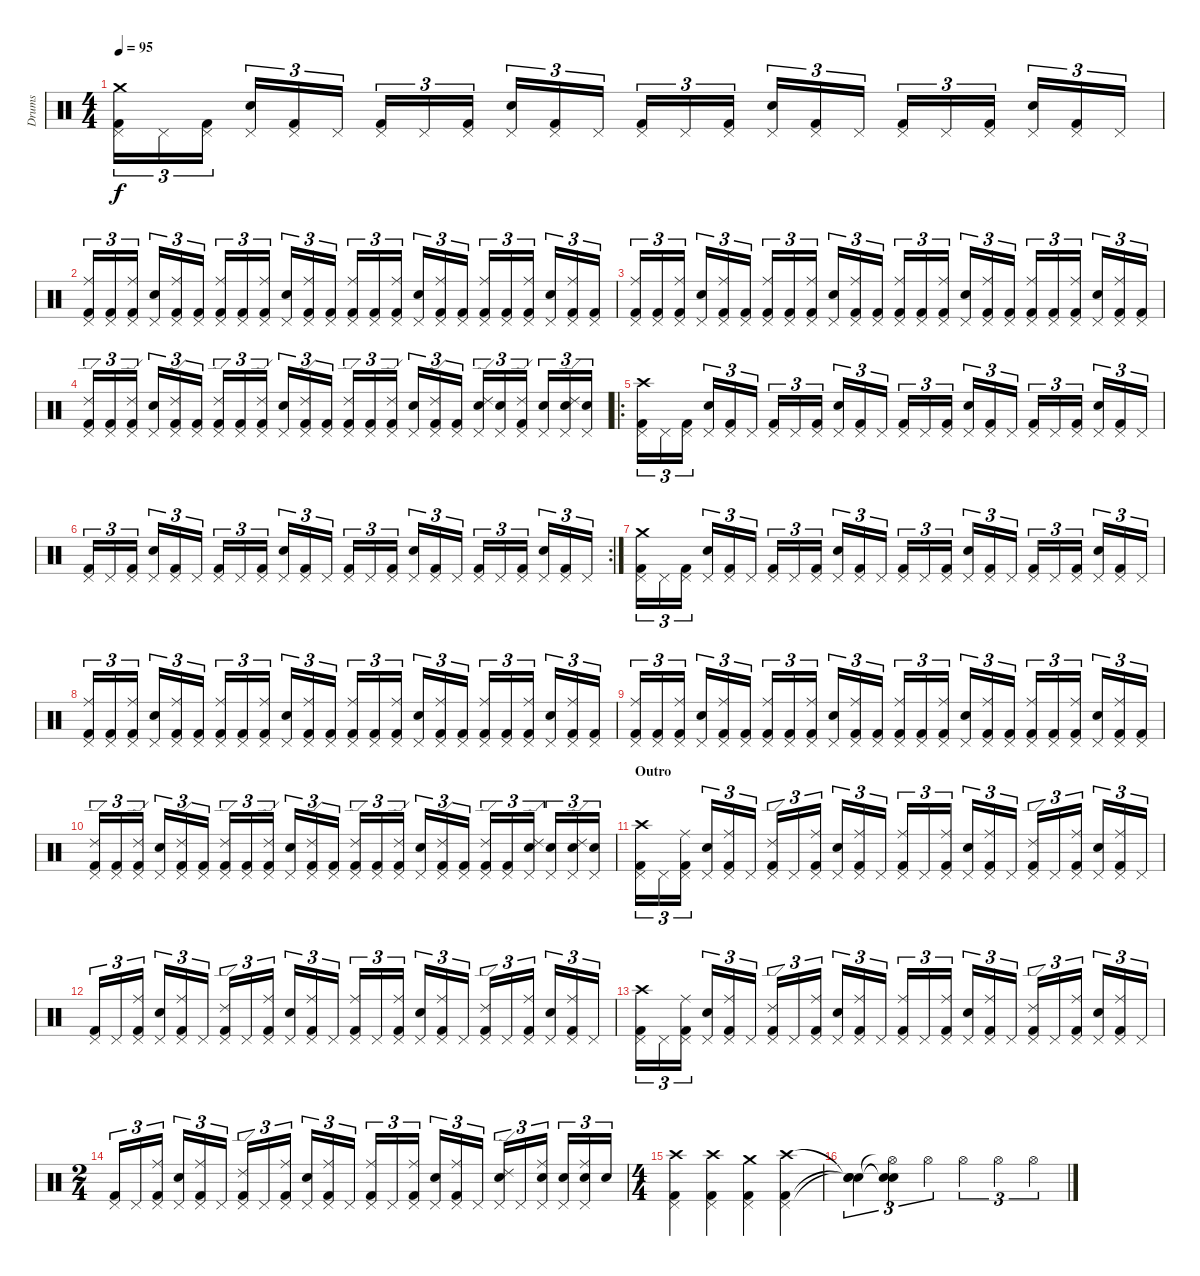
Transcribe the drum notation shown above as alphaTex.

\track ("Drums" "Drums") {instrument percussion}
\staff {score}
\articulation defaults
\ts (4 4)
\tempo 95
\clef neutral
\ks c
("Kick (hit) 2" "Pedal Hi-Hat (hit)" "Crash medium (hit)").16{tu (3 2) dy f} "Pedal Hi-Hat (hit)".16{tu (3 2)} ("Kick (hit) 2" "Pedal Hi-Hat (hit)").16{tu (3 2)} ("Snare (hit) 2" "Pedal Hi-Hat (hit)").16{tu (3 2)} ("Kick (hit) 2" "Pedal Hi-Hat (hit)").16{tu (3 2)} "Pedal Hi-Hat (hit)".16{tu (3 2)} ("Kick (hit) 2" "Pedal Hi-Hat (hit)").16{tu (3 2)} "Pedal Hi-Hat (hit)".16{tu (3 2)} ("Kick (hit) 2" "Pedal Hi-Hat (hit)").16{tu (3 2)} ("Snare (hit) 2" "Pedal Hi-Hat (hit)").16{tu (3 2)} ("Kick (hit) 2" "Pedal Hi-Hat (hit)").16{tu (3 2)} "Pedal Hi-Hat (hit)".16{tu (3 2)} ("Kick (hit) 2" "Pedal Hi-Hat (hit)").16{tu (3 2)} "Pedal Hi-Hat (hit)".16{tu (3 2)} ("Kick (hit) 2" "Pedal Hi-Hat (hit)").16{tu (3 2)} ("Snare (hit) 2" "Pedal Hi-Hat (hit)").16{tu (3 2)} ("Kick (hit) 2" "Pedal Hi-Hat (hit)").16{tu (3 2)} "Pedal Hi-Hat (hit)".16{tu (3 2)} ("Kick (hit) 2" "Pedal Hi-Hat (hit)").16{tu (3 2)} "Pedal Hi-Hat (hit)".16{tu (3 2)} ("Kick (hit) 2" "Pedal Hi-Hat (hit)").16{tu (3 2)} ("Snare (hit) 2" "Pedal Hi-Hat (hit)").16{tu (3 2)} ("Kick (hit) 2" "Pedal Hi-Hat (hit)").16{tu (3 2)} "Pedal Hi-Hat (hit)".16{tu (3 2)} |
("Kick (hit) 2" "Pedal Hi-Hat (hit)" "Ride (middle)").16{tu (3 2)} ("Kick (hit) 2" "Pedal Hi-Hat (hit)").16{tu (3 2)} ("Kick (hit) 2" "Pedal Hi-Hat (hit)" "Ride (middle)").16{tu (3 2)} ("Snare (hit) 2" "Pedal Hi-Hat (hit)").16{tu (3 2)} ("Kick (hit) 2" "Pedal Hi-Hat (hit)" "Ride (middle)").16{tu (3 2)} ("Kick (hit) 2" "Pedal Hi-Hat (hit)").16{tu (3 2)} ("Kick (hit) 2" "Pedal Hi-Hat (hit)" "Ride (middle)").16{tu (3 2)} ("Kick (hit) 2" "Pedal Hi-Hat (hit)").16{tu (3 2)} ("Kick (hit) 2" "Pedal Hi-Hat (hit)" "Ride (middle)").16{tu (3 2)} ("Snare (hit) 2" "Pedal Hi-Hat (hit)").16{tu (3 2)} ("Kick (hit) 2" "Pedal Hi-Hat (hit)" "Ride (middle)").16{tu (3 2)} ("Kick (hit) 2" "Pedal Hi-Hat (hit)").16{tu (3 2)} ("Kick (hit) 2" "Pedal Hi-Hat (hit)" "Ride (middle)").16{tu (3 2)} ("Kick (hit) 2" "Pedal Hi-Hat (hit)").16{tu (3 2)} ("Kick (hit) 2" "Pedal Hi-Hat (hit)" "Ride (middle)").16{tu (3 2)} ("Snare (hit) 2" "Pedal Hi-Hat (hit)").16{tu (3 2)} ("Kick (hit) 2" "Pedal Hi-Hat (hit)" "Ride (middle)").16{tu (3 2)} ("Kick (hit) 2" "Pedal Hi-Hat (hit)").16{tu (3 2)} ("Kick (hit) 2" "Pedal Hi-Hat (hit)" "Ride (middle)").16{tu (3 2)} ("Kick (hit) 2" "Pedal Hi-Hat (hit)").16{tu (3 2)} ("Kick (hit) 2" "Pedal Hi-Hat (hit)" "Ride (middle)").16{tu (3 2)} ("Snare (hit) 2" "Pedal Hi-Hat (hit)").16{tu (3 2)} ("Kick (hit) 2" "Pedal Hi-Hat (hit)" "Ride (middle)").16{tu (3 2)} ("Kick (hit) 2" "Pedal Hi-Hat (hit)").16{tu (3 2)} |
("Kick (hit) 2" "Pedal Hi-Hat (hit)" "Ride (middle)").16{tu (3 2)} ("Kick (hit) 2" "Pedal Hi-Hat (hit)").16{tu (3 2)} ("Kick (hit) 2" "Pedal Hi-Hat (hit)" "Ride (middle)").16{tu (3 2)} ("Snare (hit) 2" "Pedal Hi-Hat (hit)").16{tu (3 2)} ("Kick (hit) 2" "Pedal Hi-Hat (hit)" "Ride (middle)").16{tu (3 2)} ("Kick (hit) 2" "Pedal Hi-Hat (hit)").16{tu (3 2)} ("Kick (hit) 2" "Pedal Hi-Hat (hit)" "Ride (middle)").16{tu (3 2)} ("Kick (hit) 2" "Pedal Hi-Hat (hit)").16{tu (3 2)} ("Kick (hit) 2" "Pedal Hi-Hat (hit)" "Ride (middle)").16{tu (3 2)} ("Snare (hit) 2" "Pedal Hi-Hat (hit)").16{tu (3 2)} ("Kick (hit) 2" "Pedal Hi-Hat (hit)" "Ride (middle)").16{tu (3 2)} ("Kick (hit) 2" "Pedal Hi-Hat (hit)").16{tu (3 2)} ("Kick (hit) 2" "Pedal Hi-Hat (hit)" "Ride (middle)").16{tu (3 2)} ("Kick (hit) 2" "Pedal Hi-Hat (hit)").16{tu (3 2)} ("Kick (hit) 2" "Pedal Hi-Hat (hit)" "Ride (middle)").16{tu (3 2)} ("Snare (hit) 2" "Pedal Hi-Hat (hit)").16{tu (3 2)} ("Kick (hit) 2" "Pedal Hi-Hat (hit)" "Ride (middle)").16{tu (3 2)} ("Kick (hit) 2" "Pedal Hi-Hat (hit)").16{tu (3 2)} ("Kick (hit) 2" "Pedal Hi-Hat (hit)" "Ride (middle)").16{tu (3 2)} ("Kick (hit) 2" "Pedal Hi-Hat (hit)").16{tu (3 2)} ("Kick (hit) 2" "Pedal Hi-Hat (hit)" "Ride (middle)").16{tu (3 2)} ("Snare (hit) 2" "Pedal Hi-Hat (hit)").16{tu (3 2)} ("Kick (hit) 2" "Pedal Hi-Hat (hit)" "Ride (middle)").16{tu (3 2)} ("Kick (hit) 2" "Pedal Hi-Hat (hit)").16{tu (3 2)} |
("Kick (hit) 2" "Pedal Hi-Hat (hit)" "Ride (edge) 2").16{tu (3 2)} ("Kick (hit) 2" "Pedal Hi-Hat (hit)").16{tu (3 2)} ("Kick (hit) 2" "Pedal Hi-Hat (hit)" "Ride (edge) 2").16{tu (3 2)} ("Snare (hit) 2" "Pedal Hi-Hat (hit)").16{tu (3 2)} ("Kick (hit) 2" "Pedal Hi-Hat (hit)" "Ride (edge) 2").16{tu (3 2)} ("Kick (hit) 2" "Pedal Hi-Hat (hit)").16{tu (3 2)} ("Kick (hit) 2" "Pedal Hi-Hat (hit)" "Ride (edge) 2").16{tu (3 2)} ("Kick (hit) 2" "Pedal Hi-Hat (hit)").16{tu (3 2)} ("Kick (hit) 2" "Pedal Hi-Hat (hit)" "Ride (edge) 2").16{tu (3 2)} ("Snare (hit) 2" "Pedal Hi-Hat (hit)").16{tu (3 2)} ("Kick (hit) 2" "Pedal Hi-Hat (hit)" "Ride (edge) 2").16{tu (3 2)} ("Kick (hit) 2" "Pedal Hi-Hat (hit)").16{tu (3 2)} ("Kick (hit) 2" "Pedal Hi-Hat (hit)" "Ride (edge) 2").16{tu (3 2)} ("Kick (hit) 2" "Pedal Hi-Hat (hit)").16{tu (3 2)} ("Kick (hit) 2" "Pedal Hi-Hat (hit)" "Ride (edge) 2").16{tu (3 2)} ("Snare (hit) 2" "Pedal Hi-Hat (hit)").16{tu (3 2)} ("Kick (hit) 2" "Pedal Hi-Hat (hit)" "Ride (edge) 2").16{tu (3 2)} ("Kick (hit) 2" "Pedal Hi-Hat (hit)").16{tu (3 2)} ("Snare (hit) 2" "Pedal Hi-Hat (hit)" "Ride (edge) 2").16{tu (3 2)} ("Snare (hit) 2" "Pedal Hi-Hat (hit)").16{tu (3 2)} ("Kick (hit) 2" "Pedal Hi-Hat (hit)" "Ride (edge) 2").16{tu (3 2)} ("Snare (hit) 2" "Pedal Hi-Hat (hit)").16{tu (3 2)} ("Snare (hit) 2" "Pedal Hi-Hat (hit)" "Ride (edge) 2").16{tu (3 2)} ("Snare (hit) 2" "Pedal Hi-Hat (hit)").16{tu (3 2)} |
\ro
("Kick (hit) 2" "Pedal Hi-Hat (hit)" "Crash high (hit)").16{tu (3 2)} "Pedal Hi-Hat (hit)".16{tu (3 2)} ("Kick (hit) 2" "Pedal Hi-Hat (hit)").16{tu (3 2)} ("Snare (hit) 2" "Pedal Hi-Hat (hit)").16{tu (3 2)} ("Kick (hit) 2" "Pedal Hi-Hat (hit)").16{tu (3 2)} "Pedal Hi-Hat (hit)".16{tu (3 2)} ("Kick (hit) 2" "Pedal Hi-Hat (hit)").16{tu (3 2)} "Pedal Hi-Hat (hit)".16{tu (3 2)} ("Kick (hit) 2" "Pedal Hi-Hat (hit)").16{tu (3 2)} ("Snare (hit) 2" "Pedal Hi-Hat (hit)").16{tu (3 2)} ("Kick (hit) 2" "Pedal Hi-Hat (hit)").16{tu (3 2)} "Pedal Hi-Hat (hit)".16{tu (3 2)} ("Kick (hit) 2" "Pedal Hi-Hat (hit)").16{tu (3 2)} "Pedal Hi-Hat (hit)".16{tu (3 2)} ("Kick (hit) 2" "Pedal Hi-Hat (hit)").16{tu (3 2)} ("Snare (hit) 2" "Pedal Hi-Hat (hit)").16{tu (3 2)} ("Kick (hit) 2" "Pedal Hi-Hat (hit)").16{tu (3 2)} "Pedal Hi-Hat (hit)".16{tu (3 2)} ("Kick (hit) 2" "Pedal Hi-Hat (hit)").16{tu (3 2)} "Pedal Hi-Hat (hit)".16{tu (3 2)} ("Kick (hit) 2" "Pedal Hi-Hat (hit)").16{tu (3 2)} ("Snare (hit) 2" "Pedal Hi-Hat (hit)").16{tu (3 2)} ("Kick (hit) 2" "Pedal Hi-Hat (hit)").16{tu (3 2)} "Pedal Hi-Hat (hit)".16{tu (3 2)} |
\rc 2
("Kick (hit) 2" "Pedal Hi-Hat (hit)").16{tu (3 2)} "Pedal Hi-Hat (hit)".16{tu (3 2)} ("Kick (hit) 2" "Pedal Hi-Hat (hit)").16{tu (3 2)} ("Snare (hit) 2" "Pedal Hi-Hat (hit)").16{tu (3 2)} ("Kick (hit) 2" "Pedal Hi-Hat (hit)").16{tu (3 2)} "Pedal Hi-Hat (hit)".16{tu (3 2)} ("Kick (hit) 2" "Pedal Hi-Hat (hit)").16{tu (3 2)} "Pedal Hi-Hat (hit)".16{tu (3 2)} ("Kick (hit) 2" "Pedal Hi-Hat (hit)").16{tu (3 2)} ("Snare (hit) 2" "Pedal Hi-Hat (hit)").16{tu (3 2)} ("Kick (hit) 2" "Pedal Hi-Hat (hit)").16{tu (3 2)} "Pedal Hi-Hat (hit)".16{tu (3 2)} ("Kick (hit) 2" "Pedal Hi-Hat (hit)").16{tu (3 2)} "Pedal Hi-Hat (hit)".16{tu (3 2)} ("Kick (hit) 2" "Pedal Hi-Hat (hit)").16{tu (3 2)} ("Snare (hit) 2" "Pedal Hi-Hat (hit)").16{tu (3 2)} ("Kick (hit) 2" "Pedal Hi-Hat (hit)").16{tu (3 2)} "Pedal Hi-Hat (hit)".16{tu (3 2)} ("Kick (hit) 2" "Pedal Hi-Hat (hit)").16{tu (3 2)} "Pedal Hi-Hat (hit)".16{tu (3 2)} ("Kick (hit) 2" "Pedal Hi-Hat (hit)").16{tu (3 2)} ("Snare (hit) 2" "Pedal Hi-Hat (hit)").16{tu (3 2)} ("Kick (hit) 2" "Pedal Hi-Hat (hit)").16{tu (3 2)} "Pedal Hi-Hat (hit)".16{tu (3 2)} |
("Kick (hit) 2" "Pedal Hi-Hat (hit)" "Crash medium (hit)").16{tu (3 2)} "Pedal Hi-Hat (hit)".16{tu (3 2)} ("Kick (hit) 2" "Pedal Hi-Hat (hit)").16{tu (3 2)} ("Snare (hit) 2" "Pedal Hi-Hat (hit)").16{tu (3 2)} ("Kick (hit) 2" "Pedal Hi-Hat (hit)").16{tu (3 2)} "Pedal Hi-Hat (hit)".16{tu (3 2)} ("Kick (hit) 2" "Pedal Hi-Hat (hit)").16{tu (3 2)} "Pedal Hi-Hat (hit)".16{tu (3 2)} ("Kick (hit) 2" "Pedal Hi-Hat (hit)").16{tu (3 2)} ("Snare (hit) 2" "Pedal Hi-Hat (hit)").16{tu (3 2)} ("Kick (hit) 2" "Pedal Hi-Hat (hit)").16{tu (3 2)} "Pedal Hi-Hat (hit)".16{tu (3 2)} ("Kick (hit) 2" "Pedal Hi-Hat (hit)").16{tu (3 2)} "Pedal Hi-Hat (hit)".16{tu (3 2)} ("Kick (hit) 2" "Pedal Hi-Hat (hit)").16{tu (3 2)} ("Snare (hit) 2" "Pedal Hi-Hat (hit)").16{tu (3 2)} ("Kick (hit) 2" "Pedal Hi-Hat (hit)").16{tu (3 2)} "Pedal Hi-Hat (hit)".16{tu (3 2)} ("Kick (hit) 2" "Pedal Hi-Hat (hit)").16{tu (3 2)} "Pedal Hi-Hat (hit)".16{tu (3 2)} ("Kick (hit) 2" "Pedal Hi-Hat (hit)").16{tu (3 2)} ("Snare (hit) 2" "Pedal Hi-Hat (hit)").16{tu (3 2)} ("Kick (hit) 2" "Pedal Hi-Hat (hit)").16{tu (3 2)} "Pedal Hi-Hat (hit)".16{tu (3 2)} |
("Kick (hit) 2" "Pedal Hi-Hat (hit)" "Ride (middle)").16{tu (3 2)} ("Kick (hit) 2" "Pedal Hi-Hat (hit)").16{tu (3 2)} ("Kick (hit) 2" "Pedal Hi-Hat (hit)" "Ride (middle)").16{tu (3 2)} ("Snare (hit) 2" "Pedal Hi-Hat (hit)").16{tu (3 2)} ("Kick (hit) 2" "Pedal Hi-Hat (hit)" "Ride (middle)").16{tu (3 2)} ("Kick (hit) 2" "Pedal Hi-Hat (hit)").16{tu (3 2)} ("Kick (hit) 2" "Pedal Hi-Hat (hit)" "Ride (middle)").16{tu (3 2)} ("Kick (hit) 2" "Pedal Hi-Hat (hit)").16{tu (3 2)} ("Kick (hit) 2" "Pedal Hi-Hat (hit)" "Ride (middle)").16{tu (3 2)} ("Snare (hit) 2" "Pedal Hi-Hat (hit)").16{tu (3 2)} ("Kick (hit) 2" "Pedal Hi-Hat (hit)" "Ride (middle)").16{tu (3 2)} ("Kick (hit) 2" "Pedal Hi-Hat (hit)").16{tu (3 2)} ("Kick (hit) 2" "Pedal Hi-Hat (hit)" "Ride (middle)").16{tu (3 2)} ("Kick (hit) 2" "Pedal Hi-Hat (hit)").16{tu (3 2)} ("Kick (hit) 2" "Pedal Hi-Hat (hit)" "Ride (middle)").16{tu (3 2)} ("Snare (hit) 2" "Pedal Hi-Hat (hit)").16{tu (3 2)} ("Kick (hit) 2" "Pedal Hi-Hat (hit)" "Ride (middle)").16{tu (3 2)} ("Kick (hit) 2" "Pedal Hi-Hat (hit)").16{tu (3 2)} ("Kick (hit) 2" "Pedal Hi-Hat (hit)" "Ride (middle)").16{tu (3 2)} ("Kick (hit) 2" "Pedal Hi-Hat (hit)").16{tu (3 2)} ("Kick (hit) 2" "Pedal Hi-Hat (hit)" "Ride (middle)").16{tu (3 2)} ("Snare (hit) 2" "Pedal Hi-Hat (hit)").16{tu (3 2)} ("Kick (hit) 2" "Pedal Hi-Hat (hit)" "Ride (middle)").16{tu (3 2)} ("Kick (hit) 2" "Pedal Hi-Hat (hit)").16{tu (3 2)} |
("Kick (hit) 2" "Pedal Hi-Hat (hit)" "Ride (middle)").16{tu (3 2)} ("Kick (hit) 2" "Pedal Hi-Hat (hit)").16{tu (3 2)} ("Kick (hit) 2" "Pedal Hi-Hat (hit)" "Ride (middle)").16{tu (3 2)} ("Snare (hit) 2" "Pedal Hi-Hat (hit)").16{tu (3 2)} ("Kick (hit) 2" "Pedal Hi-Hat (hit)" "Ride (middle)").16{tu (3 2)} ("Kick (hit) 2" "Pedal Hi-Hat (hit)").16{tu (3 2)} ("Kick (hit) 2" "Pedal Hi-Hat (hit)" "Ride (middle)").16{tu (3 2)} ("Kick (hit) 2" "Pedal Hi-Hat (hit)").16{tu (3 2)} ("Kick (hit) 2" "Pedal Hi-Hat (hit)" "Ride (middle)").16{tu (3 2)} ("Snare (hit) 2" "Pedal Hi-Hat (hit)").16{tu (3 2)} ("Kick (hit) 2" "Pedal Hi-Hat (hit)" "Ride (middle)").16{tu (3 2)} ("Kick (hit) 2" "Pedal Hi-Hat (hit)").16{tu (3 2)} ("Kick (hit) 2" "Pedal Hi-Hat (hit)" "Ride (middle)").16{tu (3 2)} ("Kick (hit) 2" "Pedal Hi-Hat (hit)").16{tu (3 2)} ("Kick (hit) 2" "Pedal Hi-Hat (hit)" "Ride (middle)").16{tu (3 2)} ("Snare (hit) 2" "Pedal Hi-Hat (hit)").16{tu (3 2)} ("Kick (hit) 2" "Pedal Hi-Hat (hit)" "Ride (middle)").16{tu (3 2)} ("Kick (hit) 2" "Pedal Hi-Hat (hit)").16{tu (3 2)} ("Kick (hit) 2" "Pedal Hi-Hat (hit)" "Ride (middle)").16{tu (3 2)} ("Kick (hit) 2" "Pedal Hi-Hat (hit)").16{tu (3 2)} ("Kick (hit) 2" "Pedal Hi-Hat (hit)" "Ride (middle)").16{tu (3 2)} ("Snare (hit) 2" "Pedal Hi-Hat (hit)").16{tu (3 2)} ("Kick (hit) 2" "Pedal Hi-Hat (hit)" "Ride (middle)").16{tu (3 2)} ("Kick (hit) 2" "Pedal Hi-Hat (hit)").16{tu (3 2)} |
("Kick (hit) 2" "Pedal Hi-Hat (hit)" "Ride (edge) 2").16{tu (3 2)} ("Kick (hit) 2" "Pedal Hi-Hat (hit)").16{tu (3 2)} ("Kick (hit) 2" "Pedal Hi-Hat (hit)" "Ride (edge) 2").16{tu (3 2)} ("Snare (hit) 2" "Pedal Hi-Hat (hit)").16{tu (3 2)} ("Kick (hit) 2" "Pedal Hi-Hat (hit)" "Ride (edge) 2").16{tu (3 2)} ("Kick (hit) 2" "Pedal Hi-Hat (hit)").16{tu (3 2)} ("Kick (hit) 2" "Pedal Hi-Hat (hit)" "Ride (edge) 2").16{tu (3 2)} ("Kick (hit) 2" "Pedal Hi-Hat (hit)").16{tu (3 2)} ("Kick (hit) 2" "Pedal Hi-Hat (hit)" "Ride (edge) 2").16{tu (3 2)} ("Snare (hit) 2" "Pedal Hi-Hat (hit)").16{tu (3 2)} ("Kick (hit) 2" "Pedal Hi-Hat (hit)" "Ride (edge) 2").16{tu (3 2)} ("Kick (hit) 2" "Pedal Hi-Hat (hit)").16{tu (3 2)} ("Kick (hit) 2" "Pedal Hi-Hat (hit)" "Ride (edge) 2").16{tu (3 2)} ("Kick (hit) 2" "Pedal Hi-Hat (hit)").16{tu (3 2)} ("Kick (hit) 2" "Pedal Hi-Hat (hit)" "Ride (edge) 2").16{tu (3 2)} ("Snare (hit) 2" "Pedal Hi-Hat (hit)").16{tu (3 2)} ("Kick (hit) 2" "Pedal Hi-Hat (hit)" "Ride (edge) 2").16{tu (3 2)} ("Kick (hit) 2" "Pedal Hi-Hat (hit)").16{tu (3 2)} ("Kick (hit) 2" "Pedal Hi-Hat (hit)" "Ride (edge) 2").16{tu (3 2)} ("Kick (hit) 2" "Pedal Hi-Hat (hit)").16{tu (3 2)} ("Snare (hit) 2" "Pedal Hi-Hat (hit)" "Ride (edge) 2").16{tu (3 2)} ("Snare (hit) 2" "Pedal Hi-Hat (hit)").16{tu (3 2)} ("Snare (hit) 2" "Pedal Hi-Hat (hit)" "Ride (edge) 2").16{tu (3 2)} ("Snare (hit) 2" "Pedal Hi-Hat (hit)").16{tu (3 2)} |
\section ("" "Outro")
("Kick (hit) 2" "Pedal Hi-Hat (hit)" "Crash high (hit)").16{tu (3 2)} "Pedal Hi-Hat (hit)".16{tu (3 2)} ("Kick (hit) 2" "Pedal Hi-Hat (hit)" "Ride (middle)").16{tu (3 2)} ("Snare (hit) 2" "Pedal Hi-Hat (hit)").16{tu (3 2)} ("Kick (hit) 2" "Pedal Hi-Hat (hit)" "Ride (middle)").16{tu (3 2)} "Pedal Hi-Hat (hit)".16{tu (3 2)} ("Kick (hit) 2" "Pedal Hi-Hat (hit)" "Ride (edge) 2").16{tu (3 2)} "Pedal Hi-Hat (hit)".16{tu (3 2)} ("Kick (hit) 2" "Pedal Hi-Hat (hit)" "Ride (middle)").16{tu (3 2)} ("Snare (hit) 2" "Pedal Hi-Hat (hit)").16{tu (3 2)} ("Kick (hit) 2" "Pedal Hi-Hat (hit)" "Ride (middle)").16{tu (3 2)} "Pedal Hi-Hat (hit)".16{tu (3 2)} ("Kick (hit) 2" "Pedal Hi-Hat (hit)" "Ride (middle)").16{tu (3 2)} "Pedal Hi-Hat (hit)".16{tu (3 2)} ("Kick (hit) 2" "Pedal Hi-Hat (hit)" "Ride (middle)").16{tu (3 2)} ("Snare (hit) 2" "Pedal Hi-Hat (hit)").16{tu (3 2)} ("Kick (hit) 2" "Pedal Hi-Hat (hit)" "Ride (middle)").16{tu (3 2)} "Pedal Hi-Hat (hit)".16{tu (3 2)} ("Kick (hit) 2" "Pedal Hi-Hat (hit)" "Ride (edge) 2").16{tu (3 2)} "Pedal Hi-Hat (hit)".16{tu (3 2)} ("Kick (hit) 2" "Pedal Hi-Hat (hit)" "Ride (middle)").16{tu (3 2)} ("Snare (hit) 2" "Pedal Hi-Hat (hit)").16{tu (3 2)} ("Kick (hit) 2" "Pedal Hi-Hat (hit)" "Ride (middle)").16{tu (3 2)} "Pedal Hi-Hat (hit)".16{tu (3 2)} |
("Kick (hit) 2" "Pedal Hi-Hat (hit)").16{tu (3 2)} "Pedal Hi-Hat (hit)".16{tu (3 2)} ("Kick (hit) 2" "Pedal Hi-Hat (hit)" "Ride (middle)").16{tu (3 2)} ("Snare (hit) 2" "Pedal Hi-Hat (hit)").16{tu (3 2)} ("Kick (hit) 2" "Pedal Hi-Hat (hit)" "Ride (middle)").16{tu (3 2)} "Pedal Hi-Hat (hit)".16{tu (3 2)} ("Kick (hit) 2" "Pedal Hi-Hat (hit)" "Ride (edge) 2").16{tu (3 2)} "Pedal Hi-Hat (hit)".16{tu (3 2)} ("Kick (hit) 2" "Pedal Hi-Hat (hit)" "Ride (middle)").16{tu (3 2)} ("Snare (hit) 2" "Pedal Hi-Hat (hit)").16{tu (3 2)} ("Kick (hit) 2" "Pedal Hi-Hat (hit)" "Ride (middle)").16{tu (3 2)} "Pedal Hi-Hat (hit)".16{tu (3 2)} ("Kick (hit) 2" "Pedal Hi-Hat (hit)" "Ride (middle)").16{tu (3 2)} "Pedal Hi-Hat (hit)".16{tu (3 2)} ("Kick (hit) 2" "Pedal Hi-Hat (hit)" "Ride (middle)").16{tu (3 2)} ("Snare (hit) 2" "Pedal Hi-Hat (hit)").16{tu (3 2)} ("Kick (hit) 2" "Pedal Hi-Hat (hit)" "Ride (middle)").16{tu (3 2)} "Pedal Hi-Hat (hit)".16{tu (3 2)} ("Kick (hit) 2" "Pedal Hi-Hat (hit)" "Ride (edge) 2").16{tu (3 2)} "Pedal Hi-Hat (hit)".16{tu (3 2)} ("Kick (hit) 2" "Pedal Hi-Hat (hit)" "Ride (middle)").16{tu (3 2)} ("Snare (hit) 2" "Pedal Hi-Hat (hit)").16{tu (3 2)} ("Kick (hit) 2" "Pedal Hi-Hat (hit)" "Ride (middle)").16{tu (3 2)} "Pedal Hi-Hat (hit)".16{tu (3 2)} |
("Kick (hit) 2" "Pedal Hi-Hat (hit)" "Crash high (hit)").16{tu (3 2)} "Pedal Hi-Hat (hit)".16{tu (3 2)} ("Kick (hit) 2" "Pedal Hi-Hat (hit)" "Ride (middle)").16{tu (3 2)} ("Snare (hit) 2" "Pedal Hi-Hat (hit)").16{tu (3 2)} ("Kick (hit) 2" "Pedal Hi-Hat (hit)" "Ride (middle)").16{tu (3 2)} "Pedal Hi-Hat (hit)".16{tu (3 2)} ("Kick (hit) 2" "Pedal Hi-Hat (hit)" "Ride (edge) 2").16{tu (3 2)} "Pedal Hi-Hat (hit)".16{tu (3 2)} ("Kick (hit) 2" "Pedal Hi-Hat (hit)" "Ride (middle)").16{tu (3 2)} ("Snare (hit) 2" "Pedal Hi-Hat (hit)").16{tu (3 2)} ("Kick (hit) 2" "Pedal Hi-Hat (hit)" "Ride (middle)").16{tu (3 2)} "Pedal Hi-Hat (hit)".16{tu (3 2)} ("Kick (hit) 2" "Pedal Hi-Hat (hit)" "Ride (middle)").16{tu (3 2)} "Pedal Hi-Hat (hit)".16{tu (3 2)} ("Kick (hit) 2" "Pedal Hi-Hat (hit)" "Ride (middle)").16{tu (3 2)} ("Snare (hit) 2" "Pedal Hi-Hat (hit)").16{tu (3 2)} ("Kick (hit) 2" "Pedal Hi-Hat (hit)" "Ride (middle)").16{tu (3 2)} "Pedal Hi-Hat (hit)".16{tu (3 2)} ("Kick (hit) 2" "Pedal Hi-Hat (hit)" "Ride (edge) 2").16{tu (3 2)} "Pedal Hi-Hat (hit)".16{tu (3 2)} ("Kick (hit) 2" "Pedal Hi-Hat (hit)" "Ride (middle)").16{tu (3 2)} ("Snare (hit) 2" "Pedal Hi-Hat (hit)").16{tu (3 2)} ("Kick (hit) 2" "Pedal Hi-Hat (hit)" "Ride (middle)").16{tu (3 2)} "Pedal Hi-Hat (hit)".16{tu (3 2)} |
\ts (2 4)
("Kick (hit) 2" "Pedal Hi-Hat (hit)").16{tu (3 2)} "Pedal Hi-Hat (hit)".16{tu (3 2)} ("Kick (hit) 2" "Pedal Hi-Hat (hit)" "Ride (middle)").16{tu (3 2)} ("Snare (hit) 2" "Pedal Hi-Hat (hit)").16{tu (3 2)} ("Kick (hit) 2" "Pedal Hi-Hat (hit)" "Ride (middle)").16{tu (3 2)} "Pedal Hi-Hat (hit)".16{tu (3 2)} ("Kick (hit) 2" "Pedal Hi-Hat (hit)" "Ride (edge) 2").16{tu (3 2)} "Pedal Hi-Hat (hit)".16{tu (3 2)} ("Kick (hit) 2" "Pedal Hi-Hat (hit)" "Ride (middle)").16{tu (3 2)} ("Snare (hit) 2" "Pedal Hi-Hat (hit)").16{tu (3 2)} ("Kick (hit) 2" "Pedal Hi-Hat (hit)" "Ride (middle)").16{tu (3 2)} "Pedal Hi-Hat (hit)".16{tu (3 2)} ("Kick (hit) 2" "Pedal Hi-Hat (hit)" "Ride (middle)").16{tu (3 2)} "Pedal Hi-Hat (hit)".16{tu (3 2)} ("Kick (hit) 2" "Pedal Hi-Hat (hit)" "Ride (middle)").16{tu (3 2)} ("Snare (hit) 2" "Pedal Hi-Hat (hit)").16{tu (3 2)} ("Kick (hit) 2" "Pedal Hi-Hat (hit)" "Ride (middle)").16{tu (3 2)} "Pedal Hi-Hat (hit)".16{tu (3 2)} ("Snare (hit) 2" "Pedal Hi-Hat (hit)" "Ride (edge) 2").16{tu (3 2)} "Pedal Hi-Hat (hit)".16{tu (3 2)} ("Snare (hit) 2" "Pedal Hi-Hat (hit)" "Ride (middle)").16{tu (3 2)} ("Snare (hit) 2" "Pedal Hi-Hat (hit)").16{tu (3 2)} ("Snare (hit) 2" "Pedal Hi-Hat (hit)" "Ride (middle)").16{tu (3 2)} "Snare (hit) 2".16{tu (3 2)} |
\ts (4 4)
("Kick (hit) 2" "Pedal Hi-Hat (hit)" "Crash high (hit)").4 ("Kick (hit) 2" "Pedal Hi-Hat (hit)" "Crash high (hit)").4 ("Kick (hit) 2" "Pedal Hi-Hat (hit)" "Crash medium (hit)").4 ("Kick (hit) 2" "Pedal Hi-Hat (hit)" "Crash high (hit)").4 |
("Snare (hit)"{t} "Snare (hit)"{t} "Snare (hit)"{t}).4{tu (3 2)} ("Hi-Hat (open)"{t} "Snare (hit)"{t} "Snare (hit)"{t}).4{tu (3 2)} "Hi-Hat (open)".4{tu (3 2)} "Hi-Hat (open)".4{tu (3 2)} "Hi-Hat (open)".4{tu (3 2)} "Hi-Hat (open)".4{tu (3 2)}
